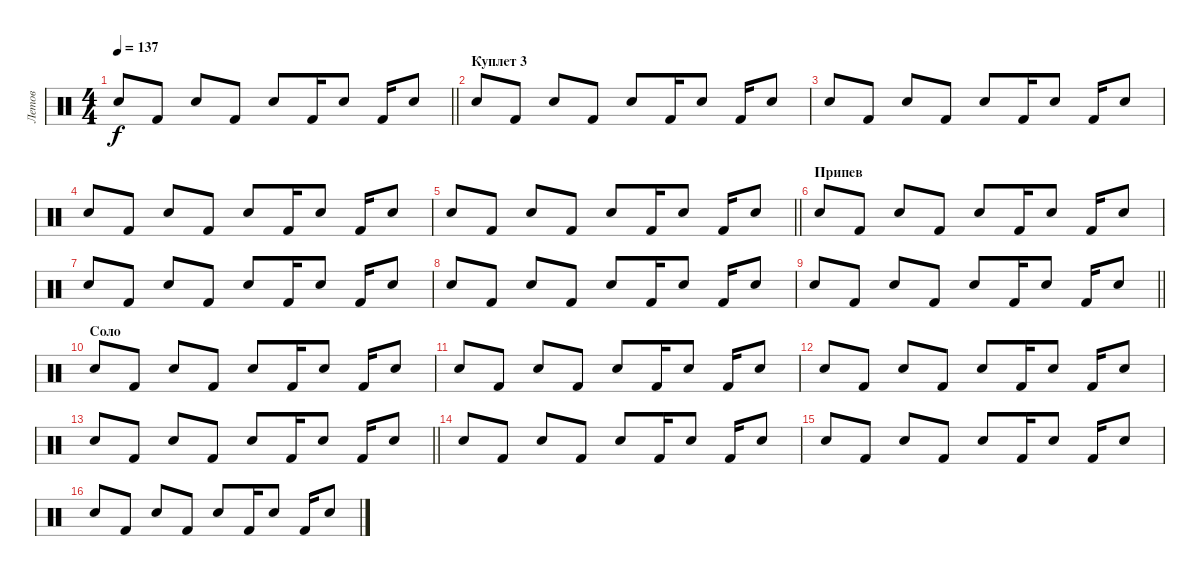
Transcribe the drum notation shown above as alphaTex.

\track ("Летов" "Летов") {instrument percussion}
\staff {score}
\articulation defaults
\ts (4 4)
\tempo 137
\clef neutral
\barLineRight lightlight
\ks c "Electric Snare (hit)".8{dy f} "Kick (hit) 2".8 "Electric Snare (hit)".8 "Kick (hit) 2".8 "Electric Snare (hit)".8 "Kick (hit) 2".16 "Electric Snare (hit)".8 "Kick (hit) 2".16 "Electric Snare (hit)".8
|
\section ("" "Куплет 3")
"Electric Snare (hit)".8 "Kick (hit) 2".8 "Electric Snare (hit)".8 "Kick (hit) 2".8 "Electric Snare (hit)".8 "Kick (hit) 2".16 "Electric Snare (hit)".8 "Kick (hit) 2".16 "Electric Snare (hit)".8 |
"Electric Snare (hit)".8 "Kick (hit) 2".8 "Electric Snare (hit)".8 "Kick (hit) 2".8 "Electric Snare (hit)".8 "Kick (hit) 2".16 "Electric Snare (hit)".8 "Kick (hit) 2".16 "Electric Snare (hit)".8 |
"Electric Snare (hit)".8 "Kick (hit) 2".8 "Electric Snare (hit)".8 "Kick (hit) 2".8 "Electric Snare (hit)".8 "Kick (hit) 2".16 "Electric Snare (hit)".8 "Kick (hit) 2".16 "Electric Snare (hit)".8 |
\barLineRight lightlight "Electric Snare (hit)".8 "Kick (hit) 2".8 "Electric Snare (hit)".8 "Kick (hit) 2".8 "Electric Snare (hit)".8 "Kick (hit) 2".16 "Electric Snare (hit)".8 "Kick (hit) 2".16 "Electric Snare (hit)".8
|
\section ("" "Припев")
"Electric Snare (hit)".8 "Kick (hit) 2".8 "Electric Snare (hit)".8 "Kick (hit) 2".8 "Electric Snare (hit)".8 "Kick (hit) 2".16 "Electric Snare (hit)".8 "Kick (hit) 2".16 "Electric Snare (hit)".8 |
"Electric Snare (hit)".8 "Kick (hit) 2".8 "Electric Snare (hit)".8 "Kick (hit) 2".8 "Electric Snare (hit)".8 "Kick (hit) 2".16 "Electric Snare (hit)".8 "Kick (hit) 2".16 "Electric Snare (hit)".8 |
"Electric Snare (hit)".8 "Kick (hit) 2".8 "Electric Snare (hit)".8 "Kick (hit) 2".8 "Electric Snare (hit)".8 "Kick (hit) 2".16 "Electric Snare (hit)".8 "Kick (hit) 2".16 "Electric Snare (hit)".8 |
\barLineRight lightlight "Electric Snare (hit)".8 "Kick (hit) 2".8 "Electric Snare (hit)".8 "Kick (hit) 2".8 "Electric Snare (hit)".8 "Kick (hit) 2".16 "Electric Snare (hit)".8 "Kick (hit) 2".16 "Electric Snare (hit)".8
|
\section ("" "Соло")
"Electric Snare (hit)".8 "Kick (hit) 2".8 "Electric Snare (hit)".8 "Kick (hit) 2".8 "Electric Snare (hit)".8 "Kick (hit) 2".16 "Electric Snare (hit)".8 "Kick (hit) 2".16 "Electric Snare (hit)".8 |
"Electric Snare (hit)".8 "Kick (hit) 2".8 "Electric Snare (hit)".8 "Kick (hit) 2".8 "Electric Snare (hit)".8 "Kick (hit) 2".16 "Electric Snare (hit)".8 "Kick (hit) 2".16 "Electric Snare (hit)".8 |
"Electric Snare (hit)".8 "Kick (hit) 2".8 "Electric Snare (hit)".8 "Kick (hit) 2".8 "Electric Snare (hit)".8 "Kick (hit) 2".16 "Electric Snare (hit)".8 "Kick (hit) 2".16 "Electric Snare (hit)".8 |
\barLineRight lightlight "Electric Snare (hit)".8 "Kick (hit) 2".8 "Electric Snare (hit)".8 "Kick (hit) 2".8 "Electric Snare (hit)".8 "Kick (hit) 2".16 "Electric Snare (hit)".8 "Kick (hit) 2".16 "Electric Snare (hit)".8
|
"Electric Snare (hit)".8 "Kick (hit) 2".8 "Electric Snare (hit)".8 "Kick (hit) 2".8 "Electric Snare (hit)".8 "Kick (hit) 2".16 "Electric Snare (hit)".8 "Kick (hit) 2".16 "Electric Snare (hit)".8 |
"Electric Snare (hit)".8 "Kick (hit) 2".8 "Electric Snare (hit)".8 "Kick (hit) 2".8 "Electric Snare (hit)".8 "Kick (hit) 2".16 "Electric Snare (hit)".8 "Kick (hit) 2".16 "Electric Snare (hit)".8 |
"Electric Snare (hit)".8 "Kick (hit) 2".8 "Electric Snare (hit)".8 "Kick (hit) 2".8 "Electric Snare (hit)".8 "Kick (hit) 2".16 "Electric Snare (hit)".8 "Kick (hit) 2".16 "Electric Snare (hit)".8
